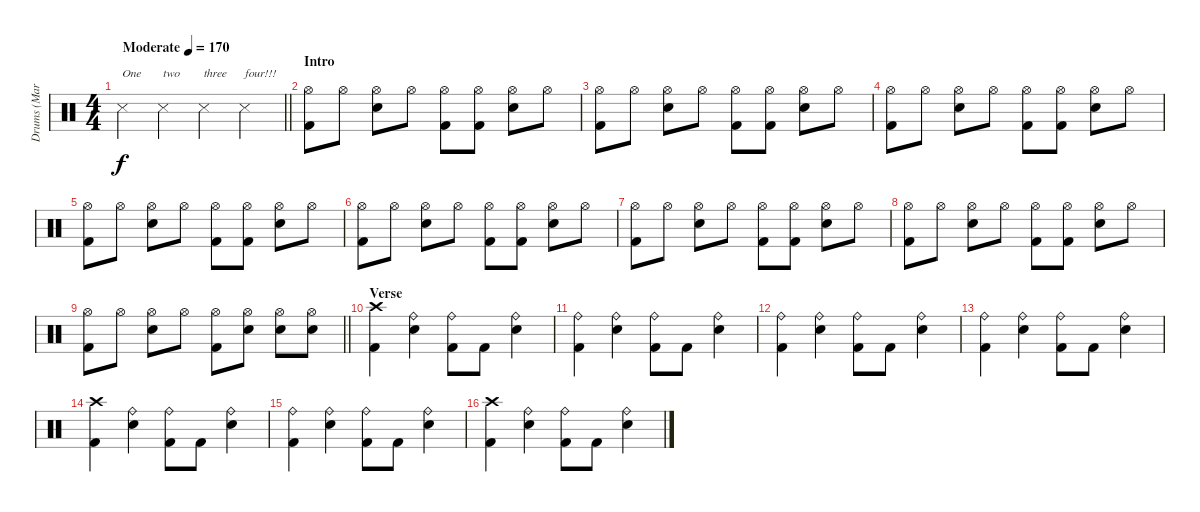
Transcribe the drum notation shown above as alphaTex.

\track ("Drums (Marky)" "Drums (Mar") {instrument percussion}
\staff {score}
\articulation defaults
\ts (4 4)
\tempo (170 "Moderate")
\clef neutral
\barLineRight lightlight
\ks c "Snare (side stick) 3".4{txt "One" dy f} "Snare (side stick) 3".4{txt "two"} "Snare (side stick) 3".4{txt "three"} "Snare (side stick) 3".4{txt "four!!!"}
|
\section ("" "Intro")
("Hi-Hat (open)" "Kick (hit) 2").8 "Hi-Hat (open)".8 ("Hi-Hat (open)" "Snare (hit) 2").8 "Hi-Hat (open)".8 ("Hi-Hat (open)" "Kick (hit) 2").8 ("Hi-Hat (open)" "Kick (hit) 2").8 ("Hi-Hat (open)" "Snare (hit) 2").8 "Hi-Hat (open)".8 |
("Hi-Hat (open)" "Kick (hit) 2").8 "Hi-Hat (open)".8 ("Hi-Hat (open)" "Snare (hit) 2").8 "Hi-Hat (open)".8 ("Hi-Hat (open)" "Kick (hit) 2").8 ("Hi-Hat (open)" "Kick (hit) 2").8 ("Hi-Hat (open)" "Snare (hit) 2").8 "Hi-Hat (open)".8 |
("Hi-Hat (open)" "Kick (hit) 2").8 "Hi-Hat (open)".8 ("Hi-Hat (open)" "Snare (hit) 2").8 "Hi-Hat (open)".8 ("Hi-Hat (open)" "Kick (hit) 2").8 ("Hi-Hat (open)" "Kick (hit) 2").8 ("Hi-Hat (open)" "Snare (hit) 2").8 "Hi-Hat (open)".8 |
("Hi-Hat (open)" "Kick (hit) 2").8 "Hi-Hat (open)".8 ("Hi-Hat (open)" "Snare (hit) 2").8 "Hi-Hat (open)".8 ("Hi-Hat (open)" "Kick (hit) 2").8 ("Hi-Hat (open)" "Kick (hit) 2").8 ("Hi-Hat (open)" "Snare (hit) 2").8 "Hi-Hat (open)".8 |
("Hi-Hat (open)" "Kick (hit) 2").8 "Hi-Hat (open)".8 ("Hi-Hat (open)" "Snare (hit) 2").8 "Hi-Hat (open)".8 ("Hi-Hat (open)" "Kick (hit) 2").8 ("Hi-Hat (open)" "Kick (hit) 2").8 ("Hi-Hat (open)" "Snare (hit) 2").8 "Hi-Hat (open)".8 |
("Hi-Hat (open)" "Kick (hit) 2").8 "Hi-Hat (open)".8 ("Hi-Hat (open)" "Snare (hit) 2").8 "Hi-Hat (open)".8 ("Hi-Hat (open)" "Kick (hit) 2").8 ("Hi-Hat (open)" "Kick (hit) 2").8 ("Hi-Hat (open)" "Snare (hit) 2").8 "Hi-Hat (open)".8 |
("Hi-Hat (open)" "Kick (hit) 2").8 "Hi-Hat (open)".8 ("Hi-Hat (open)" "Snare (hit) 2").8 "Hi-Hat (open)".8 ("Hi-Hat (open)" "Kick (hit) 2").8 ("Hi-Hat (open)" "Kick (hit) 2").8 ("Hi-Hat (open)" "Snare (hit) 2").8 "Hi-Hat (open)".8 |
\barLineRight lightlight
("Hi-Hat (open)" "Kick (hit) 2").8 "Hi-Hat (open)".8 ("Hi-Hat (open)" "Snare (hit) 2").8 "Hi-Hat (open)".8 ("Hi-Hat (open)" "Kick (hit) 2").8 ("Hi-Hat (open)" "Snare (hit) 2").8 ("Hi-Hat (open)" "Snare (hit) 2").8 ("Hi-Hat (open)" "Snare (hit) 2").8 |
\section ("" "Verse")
("Crash high (hit)" "Kick (hit) 2").4 ("Ride (bell)" "Snare (hit) 2").4 ("Ride (bell)" "Kick (hit) 2").8 "Kick (hit) 2".8 ("Ride (bell)" "Snare (hit) 2").4 |
("Ride (bell)" "Kick (hit) 2").4 ("Ride (bell)" "Snare (hit) 2").4 ("Ride (bell)" "Kick (hit) 2").8 "Kick (hit) 2".8 ("Ride (bell)" "Snare (hit) 2").4 |
("Ride (bell)" "Kick (hit) 2").4 ("Ride (bell)" "Snare (hit) 2").4 ("Ride (bell)" "Kick (hit) 2").8 "Kick (hit) 2".8 ("Ride (bell)" "Snare (hit) 2").4 |
("Ride (bell)" "Kick (hit) 2").4 ("Ride (bell)" "Snare (hit) 2").4 ("Ride (bell)" "Kick (hit) 2").8 "Kick (hit) 2".8 ("Ride (bell)" "Snare (hit) 2").4 |
("Crash high (hit)" "Kick (hit) 2").4 ("Ride (bell)" "Snare (hit) 2").4 ("Ride (bell)" "Kick (hit) 2").8 "Kick (hit) 2".8 ("Ride (bell)" "Snare (hit) 2").4 |
("Ride (bell)" "Kick (hit) 2").4 ("Ride (bell)" "Snare (hit) 2").4 ("Ride (bell)" "Kick (hit) 2").8 "Kick (hit) 2".8 ("Ride (bell)" "Snare (hit) 2").4 |
("Crash high (hit)" "Kick (hit) 2").4 ("Ride (bell)" "Snare (hit) 2").4 ("Ride (bell)" "Kick (hit) 2").8 "Kick (hit) 2".8 ("Ride (bell)" "Snare (hit) 2").4
